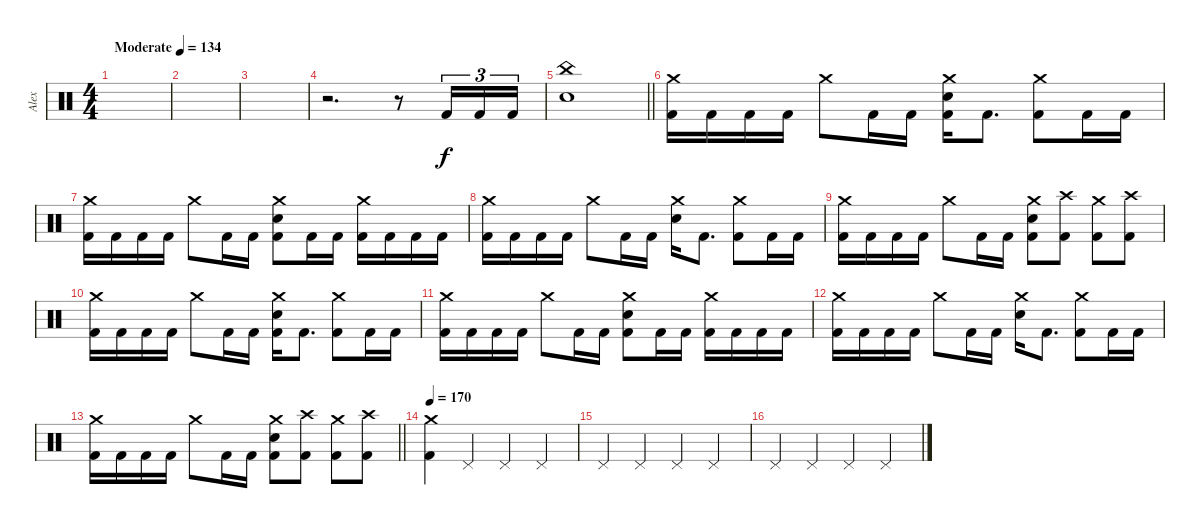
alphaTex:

\track ("Alex" "Alex") {instrument percussion}
\staff {score}
\articulation defaults
\ts (4 4)
\section ("" "")
\tempo (134 "Moderate")
\clef neutral
\ks c
|
|
|
r.2{d} r.8 "Kick (hit) 2".16{tu (3 2)} "Kick (hit) 2".16{tu (3 2)} "Kick (hit) 2".16{tu (3 2)} |
\barLineRight lightlight
("China (hit)" "Electric Snare (hit)").1 |
\section ("" "")
("Crash medium (hit)" "Kick (hit) 2").16 "Kick (hit) 2".16 "Kick (hit) 2".16 "Kick (hit) 2".16 "Crash medium (hit)".8 "Kick (hit) 2".16 "Kick (hit) 2".16 ("Crash medium (hit)" "Electric Snare (hit)" "Kick (hit) 2").16 "Kick (hit) 2".8{d} ("Crash medium (hit)" "Kick (hit) 2").8 "Kick (hit) 2".16 "Kick (hit) 2".16 |
("Crash medium (hit)" "Kick (hit) 2").16 "Kick (hit) 2".16 "Kick (hit) 2".16 "Kick (hit) 2".16 "Crash medium (hit)".8 "Kick (hit) 2".16 "Kick (hit) 2".16 ("Crash medium (hit)" "Electric Snare (hit)" "Kick (hit) 2").8 "Kick (hit) 2".16 "Kick (hit) 2".16 ("Crash medium (hit)" "Kick (hit) 2").16 "Kick (hit) 2".16 "Kick (hit) 2".16 "Kick (hit) 2".16 |
("Crash medium (hit)" "Kick (hit) 2").16 "Kick (hit) 2".16 "Kick (hit) 2".16 "Kick (hit) 2".16 "Crash medium (hit)".8 "Kick (hit) 2".16 "Kick (hit) 2".16 ("Crash medium (hit)" "Electric Snare (hit)").16 "Kick (hit) 2".8{d} ("Crash medium (hit)" "Kick (hit) 2").8 "Kick (hit) 2".16 "Kick (hit) 2".16 |
("Crash medium (hit)" "Kick (hit) 2").16 "Kick (hit) 2".16 "Kick (hit) 2".16 "Kick (hit) 2".16 "Crash medium (hit)".8 "Kick (hit) 2".16 "Kick (hit) 2".16 ("Crash medium (hit)" "Electric Snare (hit)" "Kick (hit) 2").8 ("Crash high (hit)" "Kick (hit) 2").8 ("Crash medium (hit)" "Kick (hit) 2").8 ("Crash high (hit)" "Kick (hit) 2").8 |
("Crash medium (hit)" "Kick (hit) 2").16 "Kick (hit) 2".16 "Kick (hit) 2".16 "Kick (hit) 2".16 "Crash medium (hit)".8 "Kick (hit) 2".16 "Kick (hit) 2".16 ("Crash medium (hit)" "Electric Snare (hit)" "Kick (hit) 2").16 "Kick (hit) 2".8{d} ("Crash medium (hit)" "Kick (hit) 2").8 "Kick (hit) 2".16 "Kick (hit) 2".16 |
("Crash medium (hit)" "Kick (hit) 2").16 "Kick (hit) 2".16 "Kick (hit) 2".16 "Kick (hit) 2".16 "Crash medium (hit)".8 "Kick (hit) 2".16 "Kick (hit) 2".16 ("Crash medium (hit)" "Electric Snare (hit)" "Kick (hit) 2").8 "Kick (hit) 2".16 "Kick (hit) 2".16 ("Crash medium (hit)" "Kick (hit) 2").16 "Kick (hit) 2".16 "Kick (hit) 2".16 "Kick (hit) 2".16 |
("Crash medium (hit)" "Kick (hit) 2").16 "Kick (hit) 2".16 "Kick (hit) 2".16 "Kick (hit) 2".16 "Crash medium (hit)".8 "Kick (hit) 2".16 "Kick (hit) 2".16 ("Crash medium (hit)" "Electric Snare (hit)").16 "Kick (hit) 2".8{d} ("Crash medium (hit)" "Kick (hit) 2").8 "Kick (hit) 2".16 "Kick (hit) 2".16 |
\barLineRight lightlight
("Crash medium (hit)" "Kick (hit) 2").16 "Kick (hit) 2".16 "Kick (hit) 2".16 "Kick (hit) 2".16 "Crash medium (hit)".8 "Kick (hit) 2".16 "Kick (hit) 2".16 ("Crash medium (hit)" "Electric Snare (hit)" "Kick (hit) 2").8 ("Crash high (hit)" "Kick (hit) 2").8 ("Crash medium (hit)" "Kick (hit) 2").8 ("Crash high (hit)" "Kick (hit) 2").8 |
\section ("" "")
\tempo 170
("Crash medium (hit)" "Kick (hit) 2").4 "Pedal Hi-Hat (hit)".4 "Pedal Hi-Hat (hit)".4 "Pedal Hi-Hat (hit)".4 |
"Pedal Hi-Hat (hit)".4 "Pedal Hi-Hat (hit)".4 "Pedal Hi-Hat (hit)".4 "Pedal Hi-Hat (hit)".4 |
"Pedal Hi-Hat (hit)".4 "Pedal Hi-Hat (hit)".4 "Pedal Hi-Hat (hit)".4 "Pedal Hi-Hat (hit)".4
